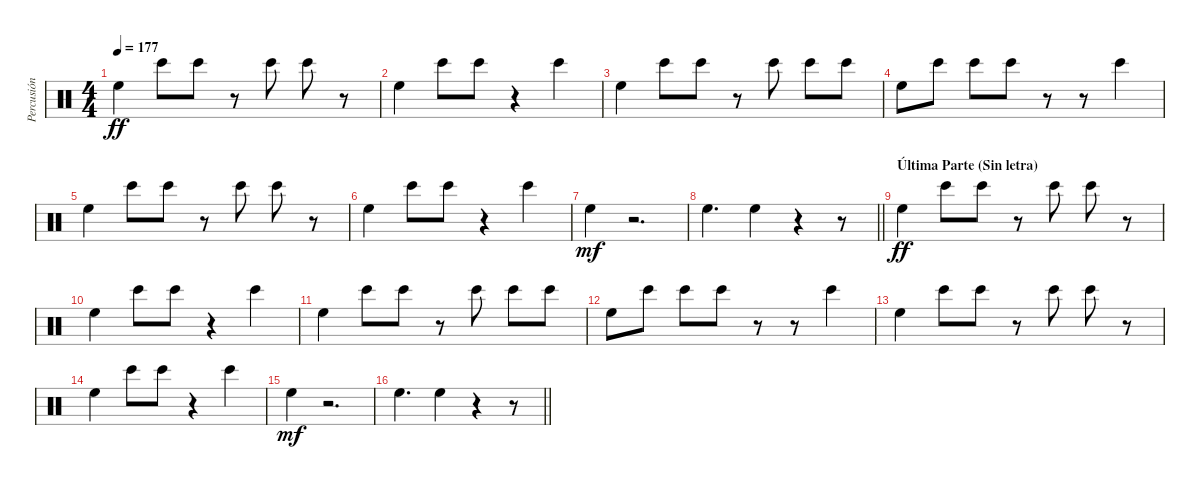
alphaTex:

\track ("Percusión" "Percusión") {instrument percussion}
\staff {score}
\articulation defaults
\ts (4 4)
\tempo 177
\clef neutral
\ks c "High Floor Tom (hit)".4{dy ff} "Bongo High (hit)".8 "Bongo High (hit)".8
r.8 "Bongo High (hit)".8 "Bongo High (hit)".8 r.8 |
"High Floor Tom (hit)".4 "Bongo High (hit)".8 "Bongo High (hit)".8 r.4 "Bongo High (hit)".4 |
"High Floor Tom (hit)".4 "Bongo High (hit)".8 "Bongo High (hit)".8 r.8 "Bongo High (hit)".8 "Bongo High (hit)".8 "Bongo High (hit)".8 |
"High Floor Tom (hit)".8 "Bongo High (hit)".8 "Bongo High (hit)".8 "Bongo High (hit)".8 r.8 r.8 "Bongo High (hit)".4 |
"High Floor Tom (hit)".4 "Bongo High (hit)".8 "Bongo High (hit)".8 r.8 "Bongo High (hit)".8 "Bongo High (hit)".8 r.8 |
"High Floor Tom (hit)".4 "Bongo High (hit)".8 "Bongo High (hit)".8 r.4 "Bongo High (hit)".4 |
"High Floor Tom (hit)".4{dy mf} r.2{d} |
\barLineRight lightlight "High Floor Tom (hit)".4{d} "High Floor Tom (hit)".4
r.4 r.8 |
\section ("" "Última Parte (Sin letra)")
"High Floor Tom (hit)".4{dy ff} "Bongo High (hit)".8 "Bongo High (hit)".8 r.8 "Bongo High (hit)".8 "Bongo High (hit)".8 r.8 |
"High Floor Tom (hit)".4 "Bongo High (hit)".8 "Bongo High (hit)".8 r.4 "Bongo High (hit)".4 |
"High Floor Tom (hit)".4 "Bongo High (hit)".8 "Bongo High (hit)".8 r.8 "Bongo High (hit)".8 "Bongo High (hit)".8 "Bongo High (hit)".8 |
"High Floor Tom (hit)".8 "Bongo High (hit)".8 "Bongo High (hit)".8 "Bongo High (hit)".8 r.8 r.8 "Bongo High (hit)".4 |
"High Floor Tom (hit)".4 "Bongo High (hit)".8 "Bongo High (hit)".8 r.8 "Bongo High (hit)".8 "Bongo High (hit)".8 r.8 |
"High Floor Tom (hit)".4 "Bongo High (hit)".8 "Bongo High (hit)".8 r.4 "Bongo High (hit)".4 |
"High Floor Tom (hit)".4{dy mf} r.2{d} |
\barLineRight lightlight "High Floor Tom (hit)".4{d} "High Floor Tom (hit)".4
r.4 r.8
